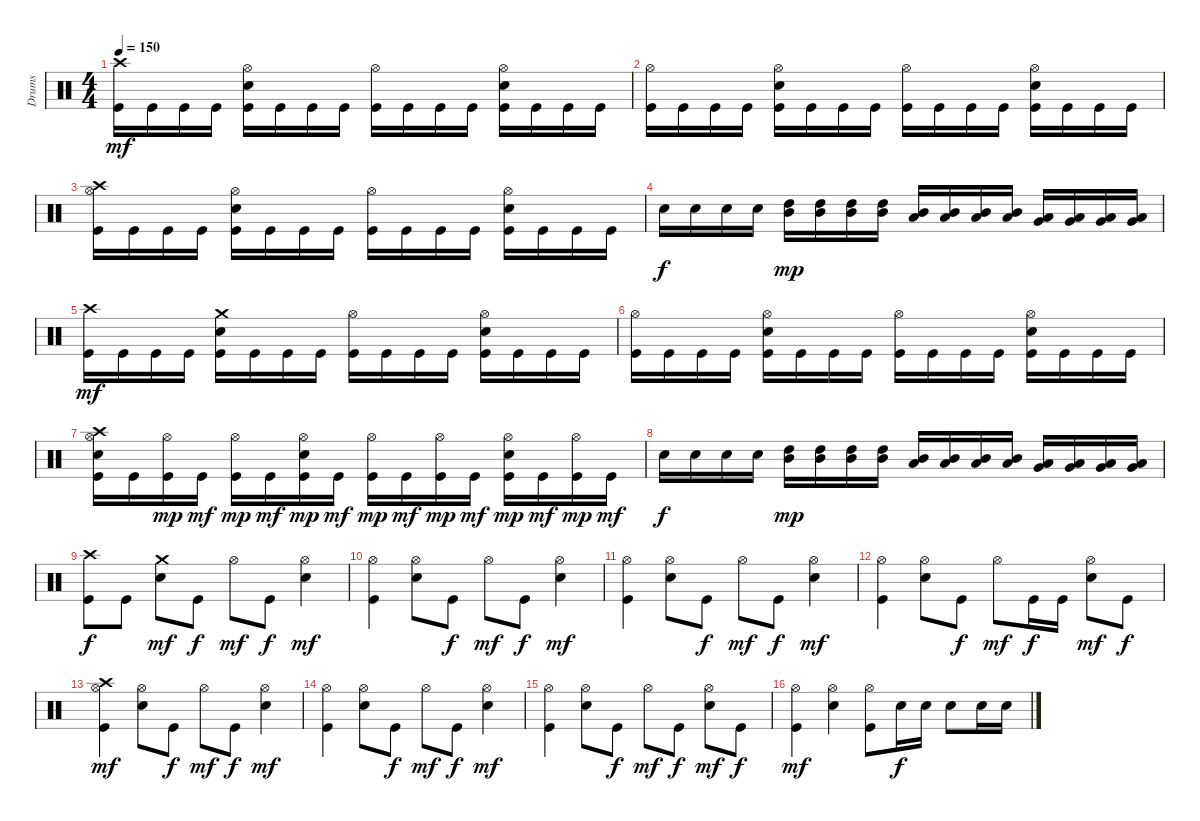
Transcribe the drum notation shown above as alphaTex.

\track ("Drums" "Drums") {instrument percussion}
\staff {score}
\articulation defaults
\ts (4 4)
\tempo 150
\clef neutral
\ks c
("Kick (hit)" "Crash high (hit)").16{dy mf} "Kick (hit)".16 "Kick (hit)".16 "Kick (hit)".16 ("Kick (hit)" "Electric Snare (hit)" "Hi-Hat (open)").16 "Kick (hit)".16 "Kick (hit)".16 "Kick (hit)".16 ("Kick (hit)" "Hi-Hat (open)").16 "Kick (hit)".16 "Kick (hit)".16 "Kick (hit)".16 ("Kick (hit)" "Electric Snare (hit)" "Hi-Hat (open)").16 "Kick (hit)".16 "Kick (hit)".16 "Kick (hit)".16 |
("Kick (hit)" "Hi-Hat (open)").16 "Kick (hit)".16 "Kick (hit)".16 "Kick (hit)".16 ("Kick (hit)" "Electric Snare (hit)" "Hi-Hat (open)").16 "Kick (hit)".16 "Kick (hit)".16 "Kick (hit)".16 ("Kick (hit)" "Hi-Hat (open)").16 "Kick (hit)".16 "Kick (hit)".16 "Kick (hit)".16 ("Kick (hit)" "Electric Snare (hit)" "Hi-Hat (open)").16 "Kick (hit)".16 "Kick (hit)".16 "Kick (hit)".16 |
("Kick (hit)" "Hi-Hat (open)" "Crash high (hit)").16 "Kick (hit)".16 "Kick (hit)".16 "Kick (hit)".16 ("Kick (hit)" "Electric Snare (hit)" "Hi-Hat (open)").16 "Kick (hit)".16 "Kick (hit)".16 "Kick (hit)".16 ("Kick (hit)" "Hi-Hat (open)").16 "Kick (hit)".16 "Kick (hit)".16 "Kick (hit)".16 ("Kick (hit)" "Electric Snare (hit)" "Hi-Hat (open)").16 "Kick (hit)".16 "Kick (hit)".16 "Kick (hit)".16 |
"Electric Snare (hit)".16{dy f} "Electric Snare (hit)".16 "Electric Snare (hit)".16 "Electric Snare (hit)".16 ("High Tom (hit)" "Mid Tom (hit)").16{dy mp} ("High Tom (hit)" "Mid Tom (hit)").16 ("High Tom (hit)" "Mid Tom (hit)").16 ("High Tom (hit)" "Mid Tom (hit)").16 ("Mid Tom (hit)" "Low Tom (hit)").16 ("Mid Tom (hit)" "Low Tom (hit)").16 ("Mid Tom (hit)" "Low Tom (hit)").16 ("Mid Tom (hit)" "Low Tom (hit)").16 ("Low Tom (hit)" "Very Low Tom (hit)").16 ("Low Tom (hit)" "Very Low Tom (hit)").16 ("Low Tom (hit)" "Very Low Tom (hit)").16 ("Low Tom (hit)" "Very Low Tom (hit)").16 |
("Kick (hit)" "Crash high (hit)").16{dy mf} "Kick (hit)".16 "Kick (hit)".16 "Kick (hit)".16 ("Kick (hit)" "Electric Snare (hit)" "Crash medium (hit)").16 "Kick (hit)".16 "Kick (hit)".16 "Kick (hit)".16 ("Kick (hit)" "Hi-Hat (open)").16 "Kick (hit)".16 "Kick (hit)".16 "Kick (hit)".16 ("Kick (hit)" "Electric Snare (hit)" "Hi-Hat (open)").16 "Kick (hit)".16 "Kick (hit)".16 "Kick (hit)".16 |
("Kick (hit)" "Hi-Hat (open)").16 "Kick (hit)".16 "Kick (hit)".16 "Kick (hit)".16 ("Kick (hit)" "Electric Snare (hit)" "Hi-Hat (open)").16 "Kick (hit)".16 "Kick (hit)".16 "Kick (hit)".16 ("Kick (hit)" "Hi-Hat (open)").16 "Kick (hit)".16 "Kick (hit)".16 "Kick (hit)".16 ("Kick (hit)" "Electric Snare (hit)" "Hi-Hat (open)").16 "Kick (hit)".16 "Kick (hit)".16 "Kick (hit)".16 |
("Kick (hit)" "Electric Snare (hit)" "Hi-Hat (open)" "Crash high (hit)").16 "Kick (hit)".16 ("Kick (hit)" "Hi-Hat (open)").16{dy mp} "Kick (hit)".16{dy mf} ("Kick (hit)" "Hi-Hat (open)").16{dy mp} "Kick (hit)".16{dy mf} ("Kick (hit)" "Electric Snare (hit)" "Hi-Hat (open)").16{dy mp} "Kick (hit)".16{dy mf} ("Kick (hit)" "Hi-Hat (open)").16{dy mp} "Kick (hit)".16{dy mf} ("Kick (hit)" "Hi-Hat (open)").16{dy mp} "Kick (hit)".16{dy mf} ("Kick (hit)" "Electric Snare (hit)" "Hi-Hat (open)").16{dy mp} "Kick (hit)".16{dy mf} ("Kick (hit)" "Hi-Hat (open)").16{dy mp} "Kick (hit)".16{dy mf} |
"Electric Snare (hit)".16{dy f} "Electric Snare (hit)".16 "Electric Snare (hit)".16 "Electric Snare (hit)".16 ("High Tom (hit)" "Mid Tom (hit)").16{dy mp} ("High Tom (hit)" "Mid Tom (hit)").16 ("High Tom (hit)" "Mid Tom (hit)").16 ("High Tom (hit)" "Mid Tom (hit)").16 ("Mid Tom (hit)" "Low Tom (hit)").16 ("Mid Tom (hit)" "Low Tom (hit)").16 ("Mid Tom (hit)" "Low Tom (hit)").16 ("Mid Tom (hit)" "Low Tom (hit)").16 ("Low Tom (hit)" "Very Low Tom (hit)").16 ("Low Tom (hit)" "Very Low Tom (hit)").16 ("Low Tom (hit)" "Very Low Tom (hit)").16 ("Low Tom (hit)" "Very Low Tom (hit)").16 |
("Kick (hit)" "Crash high (hit)").8{dy f} "Kick (hit)".8 ("Electric Snare (hit)" "Crash medium (hit)").8{dy mf} "Kick (hit)".8{dy f} "Hi-Hat (open)".8{dy mf} "Kick (hit)".8{dy f} ("Electric Snare (hit)" "Hi-Hat (open)").4{dy mf} |
("Kick (hit)" "Hi-Hat (open)").4 ("Electric Snare (hit)" "Hi-Hat (open)").8 "Kick (hit)".8{dy f} "Hi-Hat (open)".8{dy mf} "Kick (hit)".8{dy f} ("Electric Snare (hit)" "Hi-Hat (open)").4{dy mf} |
("Kick (hit)" "Hi-Hat (open)").4 ("Electric Snare (hit)" "Hi-Hat (open)").8 "Kick (hit)".8{dy f} "Hi-Hat (open)".8{dy mf} "Kick (hit)".8{dy f} ("Electric Snare (hit)" "Hi-Hat (open)").4{dy mf} |
("Kick (hit)" "Hi-Hat (open)").4 ("Electric Snare (hit)" "Hi-Hat (open)").8 "Kick (hit)".8{dy f} "Hi-Hat (open)".8{dy mf} "Kick (hit)".16{dy f} "Kick (hit)".16 ("Electric Snare (hit)" "Hi-Hat (open)").8{dy mf} "Kick (hit)".8{dy f} |
("Kick (hit)" "Hi-Hat (open)" "Crash high (hit)").4{dy mf} ("Electric Snare (hit)" "Hi-Hat (open)").8 "Kick (hit)".8{dy f} "Hi-Hat (open)".8{dy mf} "Kick (hit)".8{dy f} ("Electric Snare (hit)" "Hi-Hat (open)").4{dy mf} |
("Kick (hit)" "Hi-Hat (open)").4 ("Electric Snare (hit)" "Hi-Hat (open)").8 "Kick (hit)".8{dy f} "Hi-Hat (open)".8{dy mf} "Kick (hit)".8{dy f} ("Electric Snare (hit)" "Hi-Hat (open)").4{dy mf} |
("Kick (hit)" "Hi-Hat (open)").4 ("Electric Snare (hit)" "Hi-Hat (open)").8 "Kick (hit)".8{dy f} "Hi-Hat (open)".8{dy mf} "Kick (hit)".8{dy f} ("Electric Snare (hit)" "Hi-Hat (open)").8{dy mf} "Kick (hit)".8{dy f} |
("Kick (hit)" "Hi-Hat (open)").4{dy mf} ("Electric Snare (hit)" "Hi-Hat (open)").4 ("Kick (hit)" "Hi-Hat (open)").8 "Electric Snare (hit)".16{dy f} "Electric Snare (hit)".16 "Electric Snare (hit)".8 "Electric Snare (hit)".16 "Electric Snare (hit)".16
